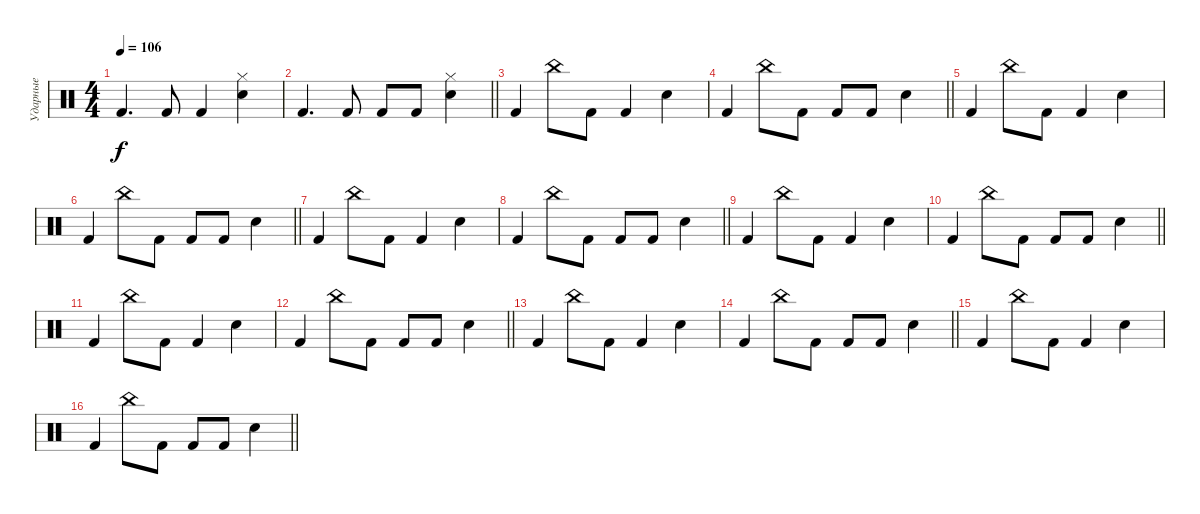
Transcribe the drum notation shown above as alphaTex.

\track ("Ударные" "Ударные") {instrument percussion}
\staff {score}
\articulation defaults
\ts (4 4)
\tempo 106
\clef neutral
\ks c "Kick (hit) 2".4{d dy f} "Kick (hit) 2".8 "Kick (hit) 2".4
("Snare (hit) 2" "Hi-Hat (closed)").4 |
\barLineRight lightlight "Kick (hit) 2".4{d} "Kick (hit) 2".8 "Kick (hit) 2".8 "Kick (hit) 2".8
("Snare (hit) 2" "Hi-Hat (closed)").4 |
"Kick (hit) 2".4 "China (hit)".8 "Kick (hit) 2".8 "Kick (hit) 2".4 "Snare (hit) 2".4 |
\barLineRight lightlight "Kick (hit) 2".4 "China (hit)".8 "Kick (hit) 2".8 "Kick (hit) 2".8 "Kick (hit) 2".8 "Snare (hit) 2".4
|
"Kick (hit) 2".4 "China (hit)".8 "Kick (hit) 2".8 "Kick (hit) 2".4 "Snare (hit) 2".4 |
\barLineRight lightlight "Kick (hit) 2".4 "China (hit)".8 "Kick (hit) 2".8 "Kick (hit) 2".8 "Kick (hit) 2".8 "Snare (hit) 2".4
|
"Kick (hit) 2".4 "China (hit)".8 "Kick (hit) 2".8 "Kick (hit) 2".4 "Snare (hit) 2".4 |
\barLineRight lightlight "Kick (hit) 2".4 "China (hit)".8 "Kick (hit) 2".8 "Kick (hit) 2".8 "Kick (hit) 2".8 "Snare (hit) 2".4
|
"Kick (hit) 2".4 "China (hit)".8 "Kick (hit) 2".8 "Kick (hit) 2".4 "Snare (hit) 2".4 |
\barLineRight lightlight "Kick (hit) 2".4 "China (hit)".8 "Kick (hit) 2".8 "Kick (hit) 2".8 "Kick (hit) 2".8 "Snare (hit) 2".4
|
"Kick (hit) 2".4 "China (hit)".8 "Kick (hit) 2".8 "Kick (hit) 2".4 "Snare (hit) 2".4 |
\barLineRight lightlight "Kick (hit) 2".4 "China (hit)".8 "Kick (hit) 2".8 "Kick (hit) 2".8 "Kick (hit) 2".8 "Snare (hit) 2".4
|
"Kick (hit) 2".4 "China (hit)".8 "Kick (hit) 2".8 "Kick (hit) 2".4 "Snare (hit) 2".4 |
\barLineRight lightlight "Kick (hit) 2".4 "China (hit)".8 "Kick (hit) 2".8 "Kick (hit) 2".8 "Kick (hit) 2".8 "Snare (hit) 2".4
|
"Kick (hit) 2".4 "China (hit)".8 "Kick (hit) 2".8 "Kick (hit) 2".4 "Snare (hit) 2".4 |
\barLineRight lightlight "Kick (hit) 2".4 "China (hit)".8 "Kick (hit) 2".8 "Kick (hit) 2".8 "Kick (hit) 2".8 "Snare (hit) 2".4
